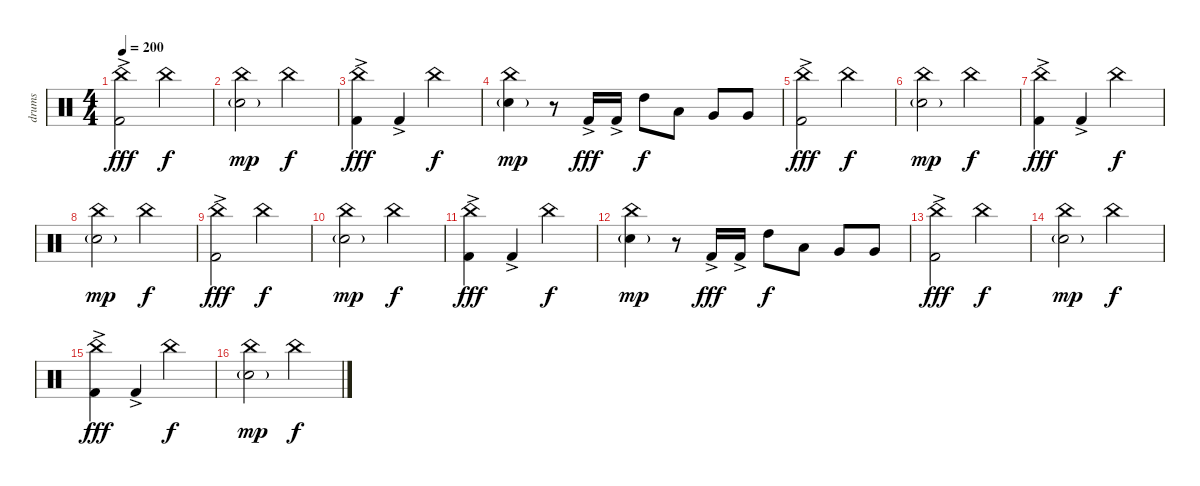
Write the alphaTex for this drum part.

\track ("drums" "drums") {instrument percussion}
\staff {score}
\articulation defaults
\ts (4 4)
\tempo 200
\clef neutral
\ks c
("China (hit)" "Kick (hit) 2"{ac}).2{dy fff} "China (hit)".2{dy f} |
("China (hit)" "Snare (hit) 2"{g}).2{dy mp} "China (hit)".2{dy f} |
("China (hit)" "Kick (hit) 2"{ac}).4{dy fff} "Kick (hit) 2"{ac}.4 "China (hit)".2{dy f} |
("China (hit)" "Snare (hit) 2"{g}).4{dy mp} r.8 "Kick (hit) 2"{ac}.16{dy fff} "Kick (hit) 2"{ac}.16 "High Tom (hit)".8{dy f} "Low Tom (hit)".8 "Very Low Tom (hit)".8 "Very Low Tom (hit)".8 |
("China (hit)" "Kick (hit) 2"{ac}).2{dy fff} "China (hit)".2{dy f} |
("China (hit)" "Snare (hit) 2"{g}).2{dy mp} "China (hit)".2{dy f} |
("China (hit)" "Kick (hit) 2"{ac}).4{dy fff} "Kick (hit) 2"{ac}.4 "China (hit)".2{dy f} |
("China (hit)" "Snare (hit) 2"{g}).2{dy mp} "China (hit)".2{dy f} |
("China (hit)" "Kick (hit) 2"{ac}).2{dy fff} "China (hit)".2{dy f} |
("China (hit)" "Snare (hit) 2"{g}).2{dy mp} "China (hit)".2{dy f} |
("China (hit)" "Kick (hit) 2"{ac}).4{dy fff} "Kick (hit) 2"{ac}.4 "China (hit)".2{dy f} |
("China (hit)" "Snare (hit) 2"{g}).4{dy mp} r.8 "Kick (hit) 2"{ac}.16{dy fff} "Kick (hit) 2"{ac}.16 "High Tom (hit)".8{dy f} "Low Tom (hit)".8 "Very Low Tom (hit)".8 "Very Low Tom (hit)".8 |
("China (hit)" "Kick (hit) 2"{ac}).2{dy fff} "China (hit)".2{dy f} |
("China (hit)" "Snare (hit) 2"{g}).2{dy mp} "China (hit)".2{dy f} |
("China (hit)" "Kick (hit) 2"{ac}).4{dy fff} "Kick (hit) 2"{ac}.4 "China (hit)".2{dy f} |
("China (hit)" "Snare (hit) 2"{g}).2{dy mp} "China (hit)".2{dy f}
